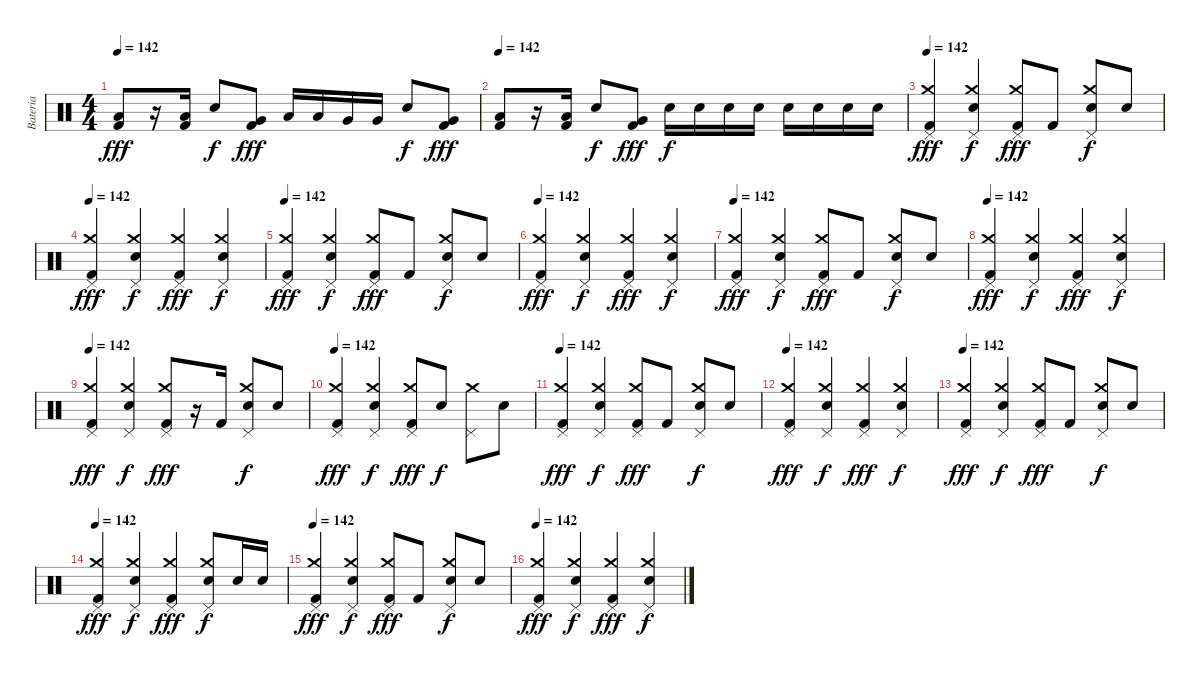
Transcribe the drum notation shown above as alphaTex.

\track ("Bateria" "Bateria") {instrument percussion}
\staff {score}
\articulation defaults
\ts (4 4)
\tempo 142
\clef neutral
\ks c
("Low Tom (hit)" "Kick (hit) 2").8{dy fff} r.16 ("Low Tom (hit)" "Kick (hit) 2").16 "Electric Snare (hit)".8{dy f} ("Very Low Tom (hit)" "Kick (hit) 2").8{dy fff} "Low Tom (hit)".16 "Low Tom (hit)".16 "Very Low Tom (hit)".16 "Very Low Tom (hit)".16 "Electric Snare (hit)".8{dy f} ("Very Low Tom (hit)" "Kick (hit) 2").8{dy fff} |
\tempo 142
("Low Tom (hit)" "Kick (hit) 2").8 r.16 ("Low Tom (hit)" "Kick (hit) 2").16 "Electric Snare (hit)".8{dy f} ("Very Low Tom (hit)" "Kick (hit) 2").8{dy fff} "Electric Snare (hit)".16{dy f} "Electric Snare (hit)".16 "Electric Snare (hit)".16 "Electric Snare (hit)".16 "Electric Snare (hit)".16 "Electric Snare (hit)".16 "Electric Snare (hit)".16 "Electric Snare (hit)".16 |
\tempo 142
("Crash medium (hit)" "Pedal Hi-Hat (hit)" "Kick (hit) 2").4{dy fff} ("Crash medium (hit)" "Pedal Hi-Hat (hit)" "Electric Snare (hit)").4{dy f} ("Crash medium (hit)" "Pedal Hi-Hat (hit)" "Kick (hit) 2").8{dy fff} "Kick (hit) 2".8 ("Crash medium (hit)" "Pedal Hi-Hat (hit)" "Electric Snare (hit)").8{dy f} "Electric Snare (hit)".8 |
\tempo 142
("Crash medium (hit)" "Pedal Hi-Hat (hit)" "Kick (hit) 2").4{dy fff} ("Crash medium (hit)" "Pedal Hi-Hat (hit)" "Electric Snare (hit)").4{dy f} ("Crash medium (hit)" "Pedal Hi-Hat (hit)" "Kick (hit) 2").4{dy fff} ("Crash medium (hit)" "Pedal Hi-Hat (hit)" "Electric Snare (hit)").4{dy f} |
\tempo 142
("Crash medium (hit)" "Pedal Hi-Hat (hit)" "Kick (hit) 2").4{dy fff} ("Crash medium (hit)" "Pedal Hi-Hat (hit)" "Electric Snare (hit)").4{dy f} ("Crash medium (hit)" "Pedal Hi-Hat (hit)" "Kick (hit) 2").8{dy fff} "Kick (hit) 2".8 ("Crash medium (hit)" "Pedal Hi-Hat (hit)" "Electric Snare (hit)").8{dy f} "Electric Snare (hit)".8 |
\tempo 142
("Crash medium (hit)" "Pedal Hi-Hat (hit)" "Kick (hit) 2").4{dy fff} ("Crash medium (hit)" "Pedal Hi-Hat (hit)" "Electric Snare (hit)").4{dy f} ("Crash medium (hit)" "Pedal Hi-Hat (hit)" "Kick (hit) 2").4{dy fff} ("Crash medium (hit)" "Pedal Hi-Hat (hit)" "Electric Snare (hit)").4{dy f} |
\tempo 142
("Crash medium (hit)" "Pedal Hi-Hat (hit)" "Kick (hit) 2").4{dy fff} ("Crash medium (hit)" "Pedal Hi-Hat (hit)" "Electric Snare (hit)").4{dy f} ("Crash medium (hit)" "Pedal Hi-Hat (hit)" "Kick (hit) 2").8{dy fff} "Kick (hit) 2".8 ("Crash medium (hit)" "Pedal Hi-Hat (hit)" "Electric Snare (hit)").8{dy f} "Electric Snare (hit)".8 |
\tempo 142
("Crash medium (hit)" "Pedal Hi-Hat (hit)" "Kick (hit) 2").4{dy fff} ("Crash medium (hit)" "Pedal Hi-Hat (hit)" "Electric Snare (hit)").4{dy f} ("Crash medium (hit)" "Pedal Hi-Hat (hit)" "Kick (hit) 2").4{dy fff} ("Crash medium (hit)" "Pedal Hi-Hat (hit)" "Electric Snare (hit)").4{dy f} |
\tempo 142
("Crash medium (hit)" "Pedal Hi-Hat (hit)" "Kick (hit) 2").4{dy fff} ("Crash medium (hit)" "Pedal Hi-Hat (hit)" "Electric Snare (hit)").4{dy f} ("Crash medium (hit)" "Pedal Hi-Hat (hit)" "Kick (hit) 2").8{dy fff} r.16 "Kick (hit) 2".16 ("Crash medium (hit)" "Pedal Hi-Hat (hit)" "Electric Snare (hit)").8{dy f} "Electric Snare (hit)".8 |
\tempo 142
("Crash medium (hit)" "Pedal Hi-Hat (hit)" "Kick (hit) 2").4{dy fff} ("Crash medium (hit)" "Pedal Hi-Hat (hit)" "Electric Snare (hit)").4{dy f} ("Crash medium (hit)" "Pedal Hi-Hat (hit)" "Kick (hit) 2").8{dy fff} "Electric Snare (hit)".8{dy f} ("Crash medium (hit)" "Pedal Hi-Hat (hit)").8 "Electric Snare (hit)".8 |
\tempo 142
("Crash medium (hit)" "Pedal Hi-Hat (hit)" "Kick (hit) 2").4{dy fff} ("Crash medium (hit)" "Pedal Hi-Hat (hit)" "Electric Snare (hit)").4{dy f} ("Crash medium (hit)" "Pedal Hi-Hat (hit)" "Kick (hit) 2").8{dy fff} "Kick (hit) 2".8 ("Crash medium (hit)" "Pedal Hi-Hat (hit)" "Electric Snare (hit)").8{dy f} "Electric Snare (hit)".8 |
\tempo 142
("Crash medium (hit)" "Pedal Hi-Hat (hit)" "Kick (hit) 2").4{dy fff} ("Crash medium (hit)" "Pedal Hi-Hat (hit)" "Electric Snare (hit)").4{dy f} ("Crash medium (hit)" "Pedal Hi-Hat (hit)" "Kick (hit) 2").4{dy fff} ("Crash medium (hit)" "Pedal Hi-Hat (hit)" "Electric Snare (hit)").4{dy f} |
\tempo 142
("Crash medium (hit)" "Pedal Hi-Hat (hit)" "Kick (hit) 2").4{dy fff} ("Crash medium (hit)" "Pedal Hi-Hat (hit)" "Electric Snare (hit)").4{dy f} ("Crash medium (hit)" "Pedal Hi-Hat (hit)" "Kick (hit) 2").8{dy fff} "Kick (hit) 2".8 ("Crash medium (hit)" "Pedal Hi-Hat (hit)" "Electric Snare (hit)").8{dy f} "Electric Snare (hit)".8 |
\tempo 142
("Crash medium (hit)" "Pedal Hi-Hat (hit)" "Kick (hit) 2").4{dy fff} ("Crash medium (hit)" "Pedal Hi-Hat (hit)" "Electric Snare (hit)").4{dy f} ("Crash medium (hit)" "Pedal Hi-Hat (hit)" "Kick (hit) 2").4{dy fff} ("Crash medium (hit)" "Pedal Hi-Hat (hit)" "Electric Snare (hit)").8{dy f} "Electric Snare (hit)".16 "Electric Snare (hit)".16 |
\tempo 142
("Crash medium (hit)" "Pedal Hi-Hat (hit)" "Kick (hit) 2").4{dy fff} ("Crash medium (hit)" "Pedal Hi-Hat (hit)" "Electric Snare (hit)").4{dy f} ("Crash medium (hit)" "Pedal Hi-Hat (hit)" "Kick (hit) 2").8{dy fff} "Kick (hit) 2".8 ("Crash medium (hit)" "Pedal Hi-Hat (hit)" "Electric Snare (hit)").8{dy f} "Electric Snare (hit)".8 |
\tempo 142
("Crash medium (hit)" "Pedal Hi-Hat (hit)" "Kick (hit) 2").4{dy fff} ("Crash medium (hit)" "Pedal Hi-Hat (hit)" "Electric Snare (hit)").4{dy f} ("Crash medium (hit)" "Pedal Hi-Hat (hit)" "Kick (hit) 2").4{dy fff} ("Crash medium (hit)" "Pedal Hi-Hat (hit)" "Electric Snare (hit)").4{dy f}
